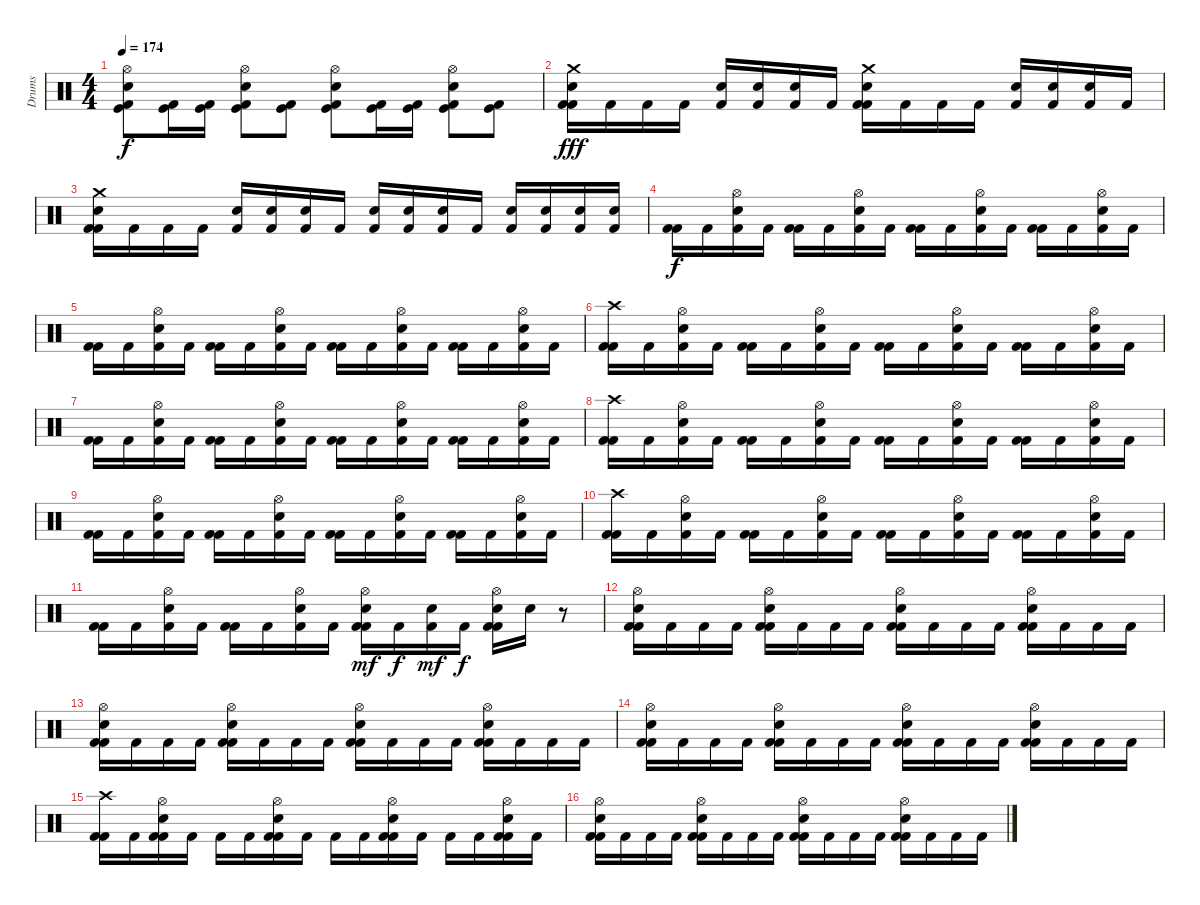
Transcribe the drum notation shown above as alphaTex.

\track ("Drums" "Drums") {instrument percussion}
\staff {score}
\articulation defaults
\ts (4 4)
\tempo 174
\clef neutral
\ks c
("Kick (hit)" "Kick (hit) 2" "Electric Snare (hit)" "Hi-Hat (open)").8{dy f} ("Kick (hit)" "Kick (hit) 2").16 ("Kick (hit)" "Kick (hit) 2").16 ("Kick (hit)" "Kick (hit) 2" "Electric Snare (hit)" "Hi-Hat (open)").8 ("Kick (hit)" "Kick (hit) 2").8 ("Kick (hit)" "Kick (hit) 2" "Electric Snare (hit)" "Hi-Hat (open)").8 ("Kick (hit)" "Kick (hit) 2").16 ("Kick (hit)" "Kick (hit) 2").16 ("Kick (hit)" "Kick (hit) 2" "Electric Snare (hit)" "Hi-Hat (open)").8 ("Kick (hit)" "Kick (hit) 2").8 |
("Kick (hit) 2" "Kick (hit) 2" "Electric Snare (hit)" "Crash medium (hit)").16{dy fff} "Kick (hit) 2".16 "Kick (hit) 2".16 "Kick (hit) 2".16 ("Kick (hit) 2" "Electric Snare (hit)").16 ("Kick (hit) 2" "Electric Snare (hit)").16 ("Kick (hit) 2" "Electric Snare (hit)").16 "Kick (hit) 2".16 ("Kick (hit) 2" "Kick (hit) 2" "Electric Snare (hit)" "Crash medium (hit)").16 "Kick (hit) 2".16 "Kick (hit) 2".16 "Kick (hit) 2".16 ("Kick (hit) 2" "Electric Snare (hit)").16 ("Kick (hit) 2" "Electric Snare (hit)").16 ("Kick (hit) 2" "Electric Snare (hit)").16 "Kick (hit) 2".16 |
("Kick (hit) 2" "Kick (hit) 2" "Electric Snare (hit)" "Crash medium (hit)").16 "Kick (hit) 2".16 "Kick (hit) 2".16 "Kick (hit) 2".16 ("Kick (hit) 2" "Electric Snare (hit)").16 ("Kick (hit) 2" "Electric Snare (hit)").16 ("Kick (hit) 2" "Electric Snare (hit)").16 "Kick (hit) 2".16 ("Kick (hit) 2" "Electric Snare (hit)").16 ("Kick (hit) 2" "Electric Snare (hit)").16 ("Kick (hit) 2" "Electric Snare (hit)").16 "Kick (hit) 2".16 ("Kick (hit) 2" "Electric Snare (hit)").16 ("Kick (hit) 2" "Electric Snare (hit)").16 ("Kick (hit) 2" "Electric Snare (hit)").16 ("Kick (hit) 2" "Electric Snare (hit)").16 |
("Kick (hit) 2" "Kick (hit) 2").16{dy f} "Kick (hit) 2".16 ("Kick (hit) 2" "Electric Snare (hit)" "Hi-Hat (open)").16 "Kick (hit) 2".16 ("Kick (hit) 2" "Kick (hit) 2").16 "Kick (hit) 2".16 ("Kick (hit) 2" "Electric Snare (hit)" "Hi-Hat (open)").16 "Kick (hit) 2".16 ("Kick (hit) 2" "Kick (hit) 2").16 "Kick (hit) 2".16 ("Kick (hit) 2" "Electric Snare (hit)" "Hi-Hat (open)").16 "Kick (hit) 2".16 ("Kick (hit) 2" "Kick (hit) 2").16 "Kick (hit) 2".16 ("Kick (hit) 2" "Electric Snare (hit)" "Hi-Hat (open)").16 "Kick (hit) 2".16 |
("Kick (hit) 2" "Kick (hit) 2").16 "Kick (hit) 2".16 ("Kick (hit) 2" "Electric Snare (hit)" "Hi-Hat (open)").16 "Kick (hit) 2".16 ("Kick (hit) 2" "Kick (hit) 2").16 "Kick (hit) 2".16 ("Kick (hit) 2" "Electric Snare (hit)" "Hi-Hat (open)").16 "Kick (hit) 2".16 ("Kick (hit) 2" "Kick (hit) 2").16 "Kick (hit) 2".16 ("Kick (hit) 2" "Electric Snare (hit)" "Hi-Hat (open)").16 "Kick (hit) 2".16 ("Kick (hit) 2" "Kick (hit) 2").16 "Kick (hit) 2".16 ("Kick (hit) 2" "Electric Snare (hit)" "Hi-Hat (open)").16 "Kick (hit) 2".16 |
("Kick (hit) 2" "Kick (hit) 2" "Crash high (hit)").16 "Kick (hit) 2".16 ("Kick (hit) 2" "Electric Snare (hit)" "Hi-Hat (open)").16 "Kick (hit) 2".16 ("Kick (hit) 2" "Kick (hit) 2").16 "Kick (hit) 2".16 ("Kick (hit) 2" "Electric Snare (hit)" "Hi-Hat (open)").16 "Kick (hit) 2".16 ("Kick (hit) 2" "Kick (hit) 2").16 "Kick (hit) 2".16 ("Kick (hit) 2" "Electric Snare (hit)" "Hi-Hat (open)").16 "Kick (hit) 2".16 ("Kick (hit) 2" "Kick (hit) 2").16 "Kick (hit) 2".16 ("Kick (hit) 2" "Electric Snare (hit)" "Hi-Hat (open)").16 "Kick (hit) 2".16 |
("Kick (hit) 2" "Kick (hit) 2").16 "Kick (hit) 2".16 ("Kick (hit) 2" "Electric Snare (hit)" "Hi-Hat (open)").16 "Kick (hit) 2".16 ("Kick (hit) 2" "Kick (hit) 2").16 "Kick (hit) 2".16 ("Kick (hit) 2" "Electric Snare (hit)" "Hi-Hat (open)").16 "Kick (hit) 2".16 ("Kick (hit) 2" "Kick (hit) 2").16 "Kick (hit) 2".16 ("Kick (hit) 2" "Electric Snare (hit)" "Hi-Hat (open)").16 "Kick (hit) 2".16 ("Kick (hit) 2" "Kick (hit) 2").16 "Kick (hit) 2".16 ("Kick (hit) 2" "Electric Snare (hit)" "Hi-Hat (open)").16 "Kick (hit) 2".16 |
("Kick (hit) 2" "Kick (hit) 2" "Crash high (hit)").16 "Kick (hit) 2".16 ("Kick (hit) 2" "Electric Snare (hit)" "Hi-Hat (open)").16 "Kick (hit) 2".16 ("Kick (hit) 2" "Kick (hit) 2").16 "Kick (hit) 2".16 ("Kick (hit) 2" "Electric Snare (hit)" "Hi-Hat (open)").16 "Kick (hit) 2".16 ("Kick (hit) 2" "Kick (hit) 2").16 "Kick (hit) 2".16 ("Kick (hit) 2" "Electric Snare (hit)" "Hi-Hat (open)").16 "Kick (hit) 2".16 ("Kick (hit) 2" "Kick (hit) 2").16 "Kick (hit) 2".16 ("Kick (hit) 2" "Electric Snare (hit)" "Hi-Hat (open)").16 "Kick (hit) 2".16 |
("Kick (hit) 2" "Kick (hit) 2").16 "Kick (hit) 2".16 ("Kick (hit) 2" "Electric Snare (hit)" "Hi-Hat (open)").16 "Kick (hit) 2".16 ("Kick (hit) 2" "Kick (hit) 2").16 "Kick (hit) 2".16 ("Kick (hit) 2" "Electric Snare (hit)" "Hi-Hat (open)").16 "Kick (hit) 2".16 ("Kick (hit) 2" "Kick (hit) 2").16 "Kick (hit) 2".16 ("Kick (hit) 2" "Electric Snare (hit)" "Hi-Hat (open)").16 "Kick (hit) 2".16 ("Kick (hit) 2" "Kick (hit) 2").16 "Kick (hit) 2".16 ("Kick (hit) 2" "Electric Snare (hit)" "Hi-Hat (open)").16 "Kick (hit) 2".16 |
("Kick (hit) 2" "Kick (hit) 2" "Crash high (hit)").16 "Kick (hit) 2".16 ("Kick (hit) 2" "Electric Snare (hit)" "Hi-Hat (open)").16 "Kick (hit) 2".16 ("Kick (hit) 2" "Kick (hit) 2").16 "Kick (hit) 2".16 ("Kick (hit) 2" "Electric Snare (hit)" "Hi-Hat (open)").16 "Kick (hit) 2".16 ("Kick (hit) 2" "Kick (hit) 2").16 "Kick (hit) 2".16 ("Kick (hit) 2" "Electric Snare (hit)" "Hi-Hat (open)").16 "Kick (hit) 2".16 ("Kick (hit) 2" "Kick (hit) 2").16 "Kick (hit) 2".16 ("Kick (hit) 2" "Electric Snare (hit)" "Hi-Hat (open)").16 "Kick (hit) 2".16 |
("Kick (hit) 2" "Kick (hit) 2").16 "Kick (hit) 2".16 ("Kick (hit) 2" "Electric Snare (hit)" "Hi-Hat (open)").16 "Kick (hit) 2".16 ("Kick (hit) 2" "Kick (hit) 2").16 "Kick (hit) 2".16 ("Kick (hit) 2" "Electric Snare (hit)" "Hi-Hat (open)").16 "Kick (hit) 2".16 ("Kick (hit) 2" "Kick (hit) 2" "Electric Snare (hit)" "Hi-Hat (open)").16{dy mf} "Kick (hit) 2".16{dy f} ("Kick (hit) 2" "Electric Snare (hit)").16{dy mf} "Kick (hit) 2".16{dy f} ("Kick (hit) 2" "Kick (hit) 2" "Electric Snare (hit)" "Hi-Hat (open)").16 "Electric Snare (hit)".16 r.8 |
("Kick (hit) 2" "Kick (hit) 2" "Electric Snare (hit)" "Hi-Hat (open)").16 "Kick (hit) 2".16 "Kick (hit) 2".16 "Kick (hit) 2".16 ("Kick (hit) 2" "Kick (hit) 2" "Electric Snare (hit)" "Hi-Hat (open)").16 "Kick (hit) 2".16 "Kick (hit) 2".16 "Kick (hit) 2".16 ("Kick (hit) 2" "Kick (hit) 2" "Electric Snare (hit)" "Hi-Hat (open)").16 "Kick (hit) 2".16 "Kick (hit) 2".16 "Kick (hit) 2".16 ("Kick (hit) 2" "Kick (hit) 2" "Electric Snare (hit)" "Hi-Hat (open)").16 "Kick (hit) 2".16 "Kick (hit) 2".16 "Kick (hit) 2".16 |
("Kick (hit) 2" "Kick (hit) 2" "Electric Snare (hit)" "Hi-Hat (open)").16 "Kick (hit) 2".16 "Kick (hit) 2".16 "Kick (hit) 2".16 ("Kick (hit) 2" "Kick (hit) 2" "Electric Snare (hit)" "Hi-Hat (open)").16 "Kick (hit) 2".16 "Kick (hit) 2".16 "Kick (hit) 2".16 ("Kick (hit) 2" "Kick (hit) 2" "Electric Snare (hit)" "Hi-Hat (open)").16 "Kick (hit) 2".16 "Kick (hit) 2".16 "Kick (hit) 2".16 ("Kick (hit) 2" "Kick (hit) 2" "Electric Snare (hit)" "Hi-Hat (open)").16 "Kick (hit) 2".16 "Kick (hit) 2".16 "Kick (hit) 2".16 |
("Kick (hit) 2" "Kick (hit) 2" "Electric Snare (hit)" "Hi-Hat (open)").16 "Kick (hit) 2".16 "Kick (hit) 2".16 "Kick (hit) 2".16 ("Kick (hit) 2" "Kick (hit) 2" "Electric Snare (hit)" "Hi-Hat (open)").16 "Kick (hit) 2".16 "Kick (hit) 2".16 "Kick (hit) 2".16 ("Kick (hit) 2" "Kick (hit) 2" "Electric Snare (hit)" "Hi-Hat (open)").16 "Kick (hit) 2".16 "Kick (hit) 2".16 "Kick (hit) 2".16 ("Kick (hit) 2" "Kick (hit) 2" "Electric Snare (hit)" "Hi-Hat (open)").16 "Kick (hit) 2".16 "Kick (hit) 2".16 "Kick (hit) 2".16 |
("Kick (hit) 2" "Kick (hit) 2" "Crash high (hit)").16 "Kick (hit) 2".16 ("Kick (hit) 2" "Kick (hit) 2" "Electric Snare (hit)" "Hi-Hat (open)").16 "Kick (hit) 2".16 "Kick (hit) 2".16 "Kick (hit) 2".16 ("Kick (hit) 2" "Kick (hit) 2" "Electric Snare (hit)" "Hi-Hat (open)").16 "Kick (hit) 2".16 "Kick (hit) 2".16 "Kick (hit) 2".16 ("Kick (hit) 2" "Kick (hit) 2" "Electric Snare (hit)" "Hi-Hat (open)").16 "Kick (hit) 2".16 "Kick (hit) 2".16 "Kick (hit) 2".16 ("Kick (hit) 2" "Kick (hit) 2" "Electric Snare (hit)" "Hi-Hat (open)").16 "Kick (hit) 2".16 |
("Kick (hit) 2" "Kick (hit) 2" "Electric Snare (hit)" "Hi-Hat (open)").16 "Kick (hit) 2".16 "Kick (hit) 2".16 "Kick (hit) 2".16 ("Kick (hit) 2" "Kick (hit) 2" "Electric Snare (hit)" "Hi-Hat (open)").16 "Kick (hit) 2".16 "Kick (hit) 2".16 "Kick (hit) 2".16 ("Kick (hit) 2" "Kick (hit) 2" "Electric Snare (hit)" "Hi-Hat (open)").16 "Kick (hit) 2".16 "Kick (hit) 2".16 "Kick (hit) 2".16 ("Kick (hit) 2" "Kick (hit) 2" "Electric Snare (hit)" "Hi-Hat (open)").16 "Kick (hit) 2".16 "Kick (hit) 2".16 "Kick (hit) 2".16
